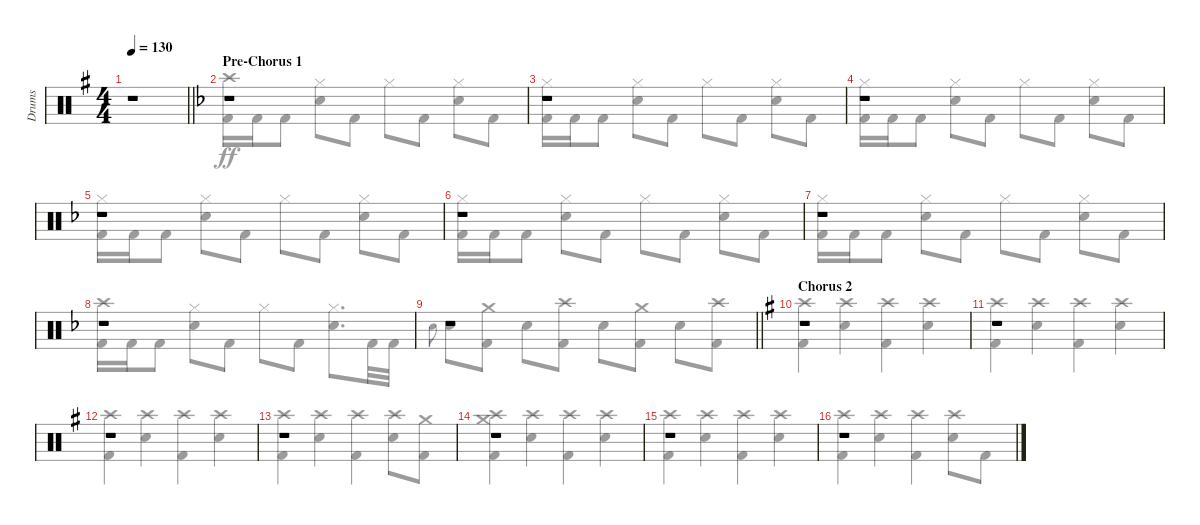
\track ("Drums" "Drums") {instrument percussion}
\staff {score}
\articulation defaults
\voice
\ts (4 4)
\tempo 130
\clef neutral
\barLineRight lightlight
\ks eminor
r.1{dy ff} |
\section ("" "Pre-Chorus 1")
\ks dminor
r.1{volume 12} |
r.1 |
r.1 |
r.1 |
r.1 |
r.1 |
r.1 |
\barLineRight lightlight
r.1 |
\section ("" "Chorus 2")
\ks eminor
r.1 |
r.1 |
r.1 |
r.1 |
r.1 |
r.1 |
r.1
\voice
\clef neutral
\ottava regular
\simile none
\barLineRight lightlight
\ks eminor
|
\ks dminor
("Crash high (hit)" "Kick (hit) 2").16 "Kick (hit) 2".16 "Kick (hit) 2".8 ("Hi-Hat (closed)" "Snare (hit) 2").8 "Kick (hit) 2".8 "Hi-Hat (closed)".8 "Kick (hit) 2".8 ("Hi-Hat (closed)" "Snare (hit) 2").8 "Kick (hit) 2".8 |
("Hi-Hat (closed)" "Kick (hit) 2").16 "Kick (hit) 2".16 "Kick (hit) 2".8 ("Hi-Hat (closed)" "Snare (hit) 2").8 "Kick (hit) 2".8 "Hi-Hat (closed)".8 "Kick (hit) 2".8 ("Hi-Hat (closed)" "Snare (hit) 2").8 "Kick (hit) 2".8 |
("Hi-Hat (closed)" "Kick (hit) 2").16 "Kick (hit) 2".16 "Kick (hit) 2".8 ("Hi-Hat (closed)" "Snare (hit) 2").8 "Kick (hit) 2".8 "Hi-Hat (closed)".8 "Kick (hit) 2".8 ("Hi-Hat (closed)" "Snare (hit) 2").8 "Kick (hit) 2".8 |
("Hi-Hat (closed)" "Kick (hit) 2").16 "Kick (hit) 2".16 "Kick (hit) 2".8 ("Hi-Hat (closed)" "Snare (hit) 2").8 "Kick (hit) 2".8 "Hi-Hat (closed)".8 "Kick (hit) 2".8 ("Hi-Hat (closed)" "Snare (hit) 2").8 "Kick (hit) 2".8 |
("Hi-Hat (closed)" "Kick (hit) 2").16 "Kick (hit) 2".16 "Kick (hit) 2".8 ("Hi-Hat (closed)" "Snare (hit) 2").8 "Kick (hit) 2".8 "Hi-Hat (closed)".8 "Kick (hit) 2".8 ("Hi-Hat (closed)" "Snare (hit) 2").8 "Kick (hit) 2".8 |
("Hi-Hat (closed)" "Kick (hit) 2").16 "Kick (hit) 2".16 "Kick (hit) 2".8 ("Hi-Hat (closed)" "Snare (hit) 2").8 "Kick (hit) 2".8 "Hi-Hat (closed)".8 "Kick (hit) 2".8 ("Hi-Hat (closed)" "Snare (hit) 2").8 "Kick (hit) 2".8 |
("Crash high (hit)" "Kick (hit) 2").16 "Kick (hit) 2".16 "Kick (hit) 2".8 ("Hi-Hat (closed)" "Snare (hit) 2").8 "Kick (hit) 2".8 "Hi-Hat (closed)".8 "Kick (hit) 2".8 ("Hi-Hat (closed)" "Snare (hit) 2").8{d} "Kick (hit) 2".32 "Kick (hit) 2".32 |
\barLineRight lightlight "Snare (hit) 2".8{gr onbeat} "Snare (hit) 2".8
("Crash medium (hit)" "Kick (hit) 2").8 "Snare (hit) 2".8 ("Crash high (hit)" "Kick (hit) 2").8 "Snare (hit) 2".8 ("Crash medium (hit)" "Kick (hit) 2").8 "Snare (hit) 2".8 ("Crash high (hit)" "Kick (hit) 2").8 |
\ks eminor
("Crash high (hit)" "Kick (hit) 2").4 ("Crash high (hit)" "Snare (hit) 2").4 ("Crash high (hit)" "Kick (hit) 2").4 ("Crash high (hit)" "Snare (hit) 2").4 |
("Crash high (hit)" "Kick (hit) 2").4 ("Crash high (hit)" "Snare (hit) 2").4 ("Crash high (hit)" "Kick (hit) 2").4 ("Crash high (hit)" "Snare (hit) 2").4 |
("Crash high (hit)" "Kick (hit) 2").4 ("Crash high (hit)" "Snare (hit) 2").4 ("Crash high (hit)" "Kick (hit) 2").4 ("Crash high (hit)" "Snare (hit) 2").4 |
("Crash high (hit)" "Kick (hit) 2").4 ("Crash high (hit)" "Snare (hit) 2").4 ("Crash high (hit)" "Kick (hit) 2").4 ("Crash high (hit)" "Snare (hit) 2").8 ("Crash medium (hit)" "Kick (hit) 2").8 |
("Crash medium (hit)" "Crash high (hit)" "Kick (hit) 2").4 ("Crash high (hit)" "Snare (hit) 2").4 ("Crash high (hit)" "Kick (hit) 2").4 ("Crash high (hit)" "Snare (hit) 2").4 |
("Crash high (hit)" "Kick (hit) 2").4 ("Crash high (hit)" "Snare (hit) 2").4 ("Crash high (hit)" "Kick (hit) 2").4 ("Crash high (hit)" "Snare (hit) 2").4 |
("Crash high (hit)" "Kick (hit) 2").4 ("Crash high (hit)" "Snare (hit) 2").4 ("Crash high (hit)" "Kick (hit) 2").4 ("Crash high (hit)" "Snare (hit) 2").8 "Kick (hit) 2".8
